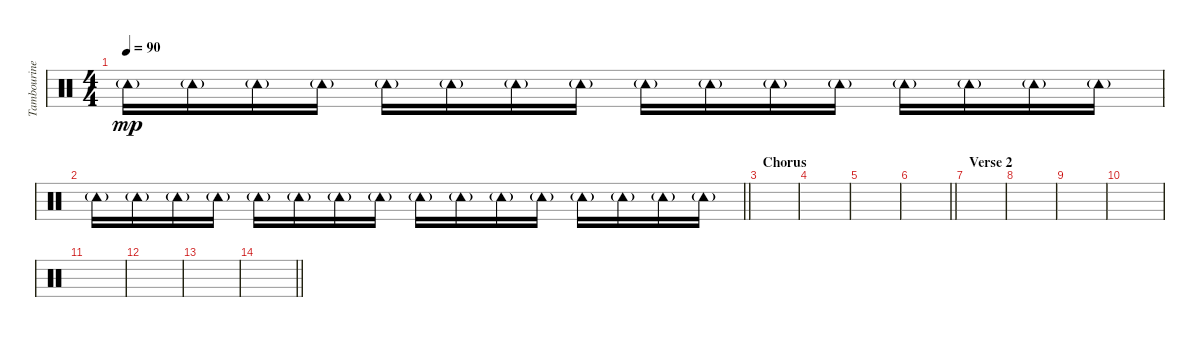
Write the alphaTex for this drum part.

\track ("Tambourine" "Tambourine") {instrument percussion}
\staff {score}
\articulation defaults
\ts (4 4)
\tempo 90
\clef neutral
\ks c "Tambourine (hit)"{g}.16{dy mp} "Tambourine (hit)"{g}.16 "Tambourine (hit)"{g}.16 "Tambourine (hit)"{g}.16 "Tambourine (hit)"{g}.16 "Tambourine (hit)"{g}.16 "Tambourine (hit)"{g}.16 "Tambourine (hit)"{g}.16 "Tambourine (hit)"{g}.16 "Tambourine (hit)"{g}.16 "Tambourine (hit)"{g}.16 "Tambourine (hit)"{g}.16 "Tambourine (hit)"{g}.16 "Tambourine (hit)"{g}.16 "Tambourine (hit)"{g}.16 "Tambourine (hit)"{g}.16
|
\barLineRight lightlight "Tambourine (hit)"{g}.16 "Tambourine (hit)"{g}.16 "Tambourine (hit)"{g}.16 "Tambourine (hit)"{g}.16 "Tambourine (hit)"{g}.16 "Tambourine (hit)"{g}.16 "Tambourine (hit)"{g}.16 "Tambourine (hit)"{g}.16 "Tambourine (hit)"{g}.16 "Tambourine (hit)"{g}.16 "Tambourine (hit)"{g}.16 "Tambourine (hit)"{g}.16 "Tambourine (hit)"{g}.16 "Tambourine (hit)"{g}.16 "Tambourine (hit)"{g}.16 "Tambourine (hit)"{g}.16
|
\section ("" "Chorus")
|
|
|
\barLineRight lightlight
|
\section ("" "Verse 2")
|
|
|
|
|
|
|
\barLineRight lightlight
